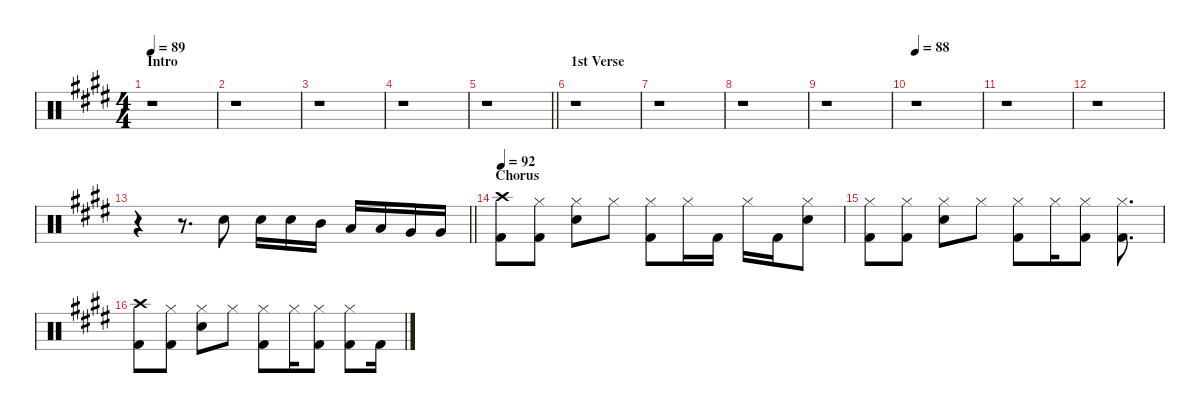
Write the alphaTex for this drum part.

\defaultSystemsLayout 4
\hideDynamics
\bracketExtendMode nobrackets
\singleTrackTrackNamePolicy hidden
\multiTrackTrackNamePolicy hidden
\firstSystemTrackNameMode fullname
\firstSystemTrackNameOrientation horizontal
\otherSystemsTrackNameOrientation horizontal
\track ("Drums" "drm.") {defaultSystemsLayout 4 instrument percussion}
\staff {score}
\articulation defaults
\ts (4 4)
\beaming (8 2 2 2 2)
\section ("" "Intro")
\tempo 89
\clef neutral
\ks e
r.1{dy f beam Down} |
r.1{beam Down} |
r.1{beam Down} |
r.1{beam Down} |
\barLineRight lightlight
r.1{beam Down} |
\section ("" "1st Verse")
r.1{beam Down} |
r.1{beam Down} |
r.1{beam Down} |
r.1{beam Down} |
\tempo 88
r.1{beam Down} |
r.1{beam Down} |
r.1{beam Down} |
\barLineRight lightlight
r.4{beam Down} r.8{d beam Down} "Snare (hit) 2"{acc forcenatural}.8{beam Down} "Snare (hit) 2"{acc forcenatural}.16{beam Down} "Snare (hit) 2"{acc forcenatural}.16{beam Down} "Mid Tom (hit)"{acc forcenatural}.16{beam Down} "Low Tom (hit)"{acc forcenatural}.16{beam Up} "Low Tom (hit)"{acc forcenatural}.16{beam Up} "Very Low Tom (hit)"{acc forcenatural}.16{beam Up} "Very Low Tom (hit)"{acc forcenatural}.16{beam Up} |
\section ("" "Chorus")
\tempo 92
("Crash high (hit)"{acc forcenatural} "Kick (hit) 2"{acc forcenatural}).8{dy mf beam Down} ("Hi-Hat (closed)"{acc forcenatural} "Kick (hit) 2"{acc forcenatural}).8{beam Down} ("Hi-Hat (closed)"{acc forcenatural} "Snare (hit) 2"{acc forcenatural}).8{beam Down} "Hi-Hat (closed)"{acc forcenatural}.8{beam Down} ("Hi-Hat (closed)"{acc forcenatural} "Kick (hit) 2"{acc forcenatural}).8{beam Down} "Hi-Hat (closed)"{acc forcenatural}.16{beam Down} "Kick (hit) 2"{acc forcenatural}.16{dy f beam Down} "Hi-Hat (closed)"{acc forcenatural}.16{dy mf beam Down} "Kick (hit) 2"{acc forcenatural}.16{dy f beam Down} ("Hi-Hat (closed)"{acc forcenatural} "Snare (hit) 2"{acc forcenatural}).8{dy mf beam Down} |
("Hi-Hat (closed)"{acc forcenatural} "Kick (hit) 2"{acc forcenatural}).8{beam Down} ("Hi-Hat (closed)"{acc forcenatural} "Kick (hit) 2"{acc forcenatural}).8{beam Down} ("Hi-Hat (closed)"{acc forcenatural} "Snare (hit) 2"{acc forcenatural}).8{beam Down} "Hi-Hat (closed)"{acc forcenatural}.8{beam Down} ("Hi-Hat (closed)"{acc forcenatural} "Kick (hit) 2"{acc forcenatural}).8{beam Down} "Hi-Hat (closed)"{acc forcenatural}.16{beam Down} ("Hi-Hat (closed)"{acc forcenatural} "Kick (hit) 2"{acc forcenatural}).8{beam Down} ("Hi-Hat (closed)"{acc forcenatural} "Kick (hit) 2"{acc forcenatural}).8{d beam Down} |
("Crash high (hit)"{acc forcenatural} "Kick (hit) 2"{acc forcenatural}).8{beam Down} ("Hi-Hat (closed)"{acc forcenatural} "Kick (hit) 2"{acc forcenatural}).8{beam Down} ("Hi-Hat (closed)"{acc forcenatural} "Snare (hit) 2"{acc forcenatural}).8{beam Down} "Hi-Hat (closed)"{acc forcenatural}.8{beam Down} ("Hi-Hat (closed)"{acc forcenatural} "Kick (hit) 2"{acc forcenatural}).8{beam Down} "Hi-Hat (closed)"{acc forcenatural}.16{beam Down} ("Hi-Hat (closed)"{acc forcenatural} "Kick (hit) 2"{acc forcenatural}).8{beam Down} ("Hi-Hat (closed)"{acc forcenatural} "Kick (hit) 2"{acc forcenatural}).8{beam Down} "Kick (hit) 2"{acc forcenatural}.16{dy f beam Down}
